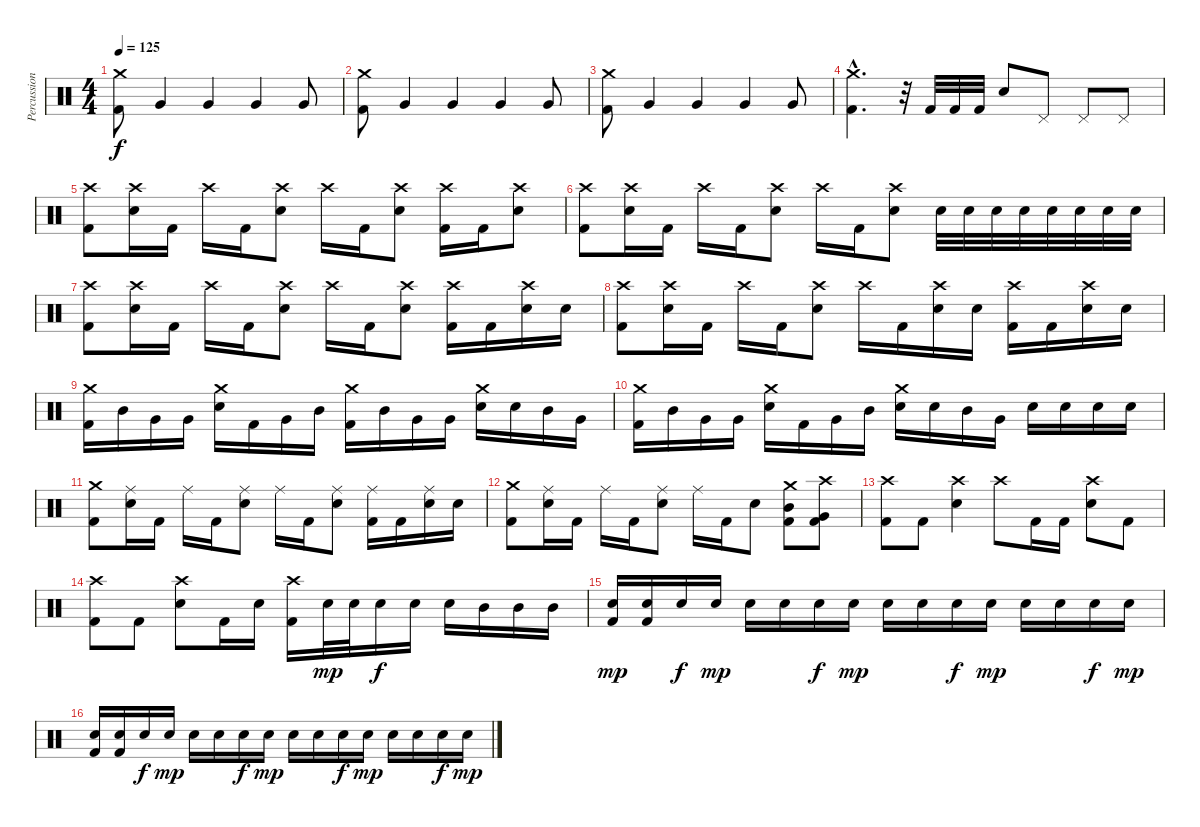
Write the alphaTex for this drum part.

\track ("Percussion" "Percussion") {instrument percussion}
\staff {score}
\articulation defaults
\ts (4 4)
\tempo 125
\clef neutral
\ks c
("Crash medium (hit)" "Kick (hit) 2").8{dy f} "Very Low Tom (hit)".4 "Very Low Tom (hit)".4 "Very Low Tom (hit)".4 "Very Low Tom (hit)".8 |
("Crash medium (hit)" "Kick (hit) 2").8 "Very Low Tom (hit)".4 "Very Low Tom (hit)".4 "Very Low Tom (hit)".4 "Very Low Tom (hit)".8 |
("Crash medium (hit)" "Kick (hit) 2").8 "Very Low Tom (hit)".4 "Very Low Tom (hit)".4 "Very Low Tom (hit)".4 "Very Low Tom (hit)".8 |
("Crash medium (hit)"{hac} "Kick (hit) 2"{hac}).4{d} r.32 "Kick (hit) 2".32 "Kick (hit) 2".32 "Kick (hit) 2".32 "Snare (hit) 2".8 "Pedal Hi-Hat (hit)".8 "Pedal Hi-Hat (hit)".8 "Pedal Hi-Hat (hit)".8 |
("Crash high (hit)" "Kick (hit) 2").8 ("Crash high (hit)" "Snare (hit) 2").16 "Kick (hit) 2".16 "Crash high (hit)".16 "Kick (hit) 2".16 ("Crash high (hit)" "Snare (hit) 2").8 "Crash high (hit)".16 "Kick (hit) 2".16 ("Crash high (hit)" "Snare (hit) 2").8 ("Crash high (hit)" "Kick (hit) 2").16 "Kick (hit) 2".16 ("Crash high (hit)" "Snare (hit) 2").8 |
("Crash high (hit)" "Kick (hit) 2").8 ("Crash high (hit)" "Snare (hit) 2").16 "Kick (hit) 2".16 "Crash high (hit)".16 "Kick (hit) 2".16 ("Crash high (hit)" "Snare (hit) 2").8 "Crash high (hit)".16 "Kick (hit) 2".16 ("Crash high (hit)" "Snare (hit) 2").8 "Snare (hit) 2".32 "Snare (hit) 2".32 "Snare (hit) 2".32 "Snare (hit) 2".32 "Snare (hit) 2".32 "Snare (hit) 2".32 "Snare (hit) 2".32 "Snare (hit) 2".32 |
("Crash high (hit)" "Kick (hit) 2").8 ("Crash high (hit)" "Snare (hit) 2").16 "Kick (hit) 2".16 "Crash high (hit)".16 "Kick (hit) 2".16 ("Crash high (hit)" "Snare (hit) 2").8 "Crash high (hit)".16 "Kick (hit) 2".16 ("Crash high (hit)" "Snare (hit) 2").8 ("Crash high (hit)" "Kick (hit) 2").16 "Kick (hit) 2".16 ("Crash high (hit)" "Snare (hit) 2").16 "Snare (hit) 2".16 |
("Crash high (hit)" "Kick (hit) 2").8 ("Crash high (hit)" "Snare (hit) 2").16 "Kick (hit) 2".16 "Crash high (hit)".16 "Kick (hit) 2".16 ("Crash high (hit)" "Snare (hit) 2").8 "Crash high (hit)".16 "Kick (hit) 2".16 ("Crash high (hit)" "Snare (hit) 2").16 "Snare (hit) 2".16 ("Crash high (hit)" "Kick (hit) 2").16 "Kick (hit) 2".16 ("Crash high (hit)" "Snare (hit) 2").16 "Snare (hit) 2".16 |
("Crash medium (hit)" "Kick (hit) 2").16 "Mid Tom (hit)".16 "Very Low Tom (hit)".16 "Very Low Tom (hit)".16 ("Crash medium (hit)" "Snare (hit) 2").16 "Kick (hit) 2".16 "Very Low Tom (hit)".16 "Mid Tom (hit)".16 ("Crash medium (hit)" "Kick (hit) 2").16 "Mid Tom (hit)".16 "Very Low Tom (hit)".16 "Very Low Tom (hit)".16 ("Crash medium (hit)" "Snare (hit) 2").16 "Snare (hit) 2".16 "Mid Tom (hit)".16 "Very Low Tom (hit)".16 |
("Crash medium (hit)" "Kick (hit) 2").16 "Mid Tom (hit)".16 "Very Low Tom (hit)".16 "Very Low Tom (hit)".16 ("Crash medium (hit)" "Snare (hit) 2").16 "Kick (hit) 2".16 "Very Low Tom (hit)".16 "Mid Tom (hit)".16 ("Crash medium (hit)" "Snare (hit) 2").16 "Snare (hit) 2".16 "Mid Tom (hit)".16 "Very Low Tom (hit)".16 "Snare (hit) 2".16 "Snare (hit) 2".16 "Snare (hit) 2".16 "Snare (hit) 2".16 |
("Crash medium (hit)" "Kick (hit) 2").8 ("Ride (middle)" "Snare (hit) 2").16 "Kick (hit) 2".16 "Ride (middle)".16 "Kick (hit) 2".16 ("Ride (middle)" "Snare (hit) 2").8 "Ride (middle)".16 "Kick (hit) 2".16 ("Ride (middle)" "Snare (hit) 2").8 ("Ride (middle)" "Kick (hit) 2").16 "Kick (hit) 2".16 ("Ride (middle)" "Snare (hit) 2").16 "Snare (hit) 2".16 |
("Crash medium (hit)" "Kick (hit) 2").8 ("Ride (middle)" "Snare (hit) 2").16 "Kick (hit) 2".16 "Ride (middle)".16 "Kick (hit) 2".16 ("Ride (middle)" "Snare (hit) 2").8 "Ride (middle)".16 "Kick (hit) 2".16 "Snare (hit) 2".8 ("Crash medium (hit)" "Mid Tom (hit)" "Kick (hit) 2").8 ("Crash high (hit)" "Very Low Tom (hit)" "Kick (hit) 2").8 |
("Crash high (hit)" "Kick (hit) 2").8 "Kick (hit) 2".8 ("Crash high (hit)" "Snare (hit) 2").4 "Crash high (hit)".8 "Kick (hit) 2".16 "Kick (hit) 2".16 ("Crash high (hit)" "Snare (hit) 2").8 "Kick (hit) 2".8 |
("Crash high (hit)" "Kick (hit) 2").8 "Kick (hit) 2".8 ("Crash high (hit)" "Snare (hit) 2").8 "Kick (hit) 2".16 "Snare (hit) 2".16 ("Crash high (hit)" "Kick (hit) 2").16 "Snare (hit) 2".32{dy mp} "Snare (hit) 2".32 "Snare (hit) 2".16{dy f} "Snare (hit) 2".16 "Snare (hit) 2".16 "Mid Tom (hit)".16 "Mid Tom (hit)".16 "Mid Tom (hit)".16 |
("Snare (hit) 2" "Kick (hit) 2").16{dy mp} ("Snare (hit) 2" "Kick (hit) 2").16 "Snare (hit) 2".16{dy f} "Snare (hit) 2".16{dy mp} "Snare (hit) 2".16 "Snare (hit) 2".16 "Snare (hit) 2".16{dy f} "Snare (hit) 2".16{dy mp} "Snare (hit) 2".16 "Snare (hit) 2".16 "Snare (hit) 2".16{dy f} "Snare (hit) 2".16{dy mp} "Snare (hit) 2".16 "Snare (hit) 2".16 "Snare (hit) 2".16{dy f} "Snare (hit) 2".16{dy mp} |
("Snare (hit) 2" "Kick (hit) 2").16 ("Snare (hit) 2" "Kick (hit) 2").16 "Snare (hit) 2".16{dy f} "Snare (hit) 2".16{dy mp} "Snare (hit) 2".16 "Snare (hit) 2".16 "Snare (hit) 2".16{dy f} "Snare (hit) 2".16{dy mp} "Snare (hit) 2".16 "Snare (hit) 2".16 "Snare (hit) 2".16{dy f} "Snare (hit) 2".16{dy mp} "Snare (hit) 2".16 "Snare (hit) 2".16 "Snare (hit) 2".16{dy f} "Snare (hit) 2".16{dy mp}
